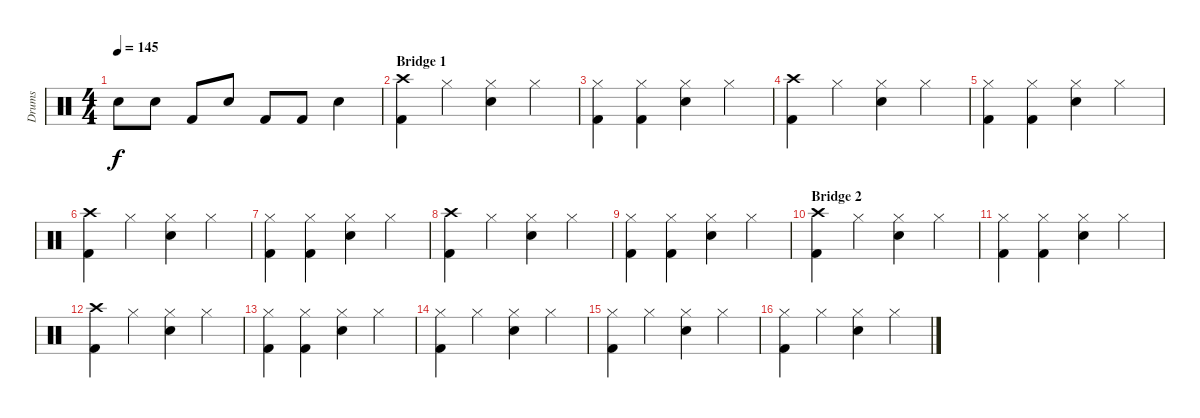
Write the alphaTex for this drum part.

\track ("Drums" "Drums") {instrument percussion}
\staff {score}
\articulation defaults
\ts (4 4)
\tempo 145
\clef neutral
\ks c "Electric Snare (hit)".8{dy f} "Electric Snare (hit)".8 "Kick (hit) 2".8 "Electric Snare (hit)".8 "Kick (hit) 2".8 "Kick (hit) 2".8 "Electric Snare (hit)".4
|
\section ("" "Bridge 1")
("Crash high (hit)" "Kick (hit) 2").4 "Hi-Hat (closed)".4 ("Hi-Hat (closed)" "Electric Snare (hit)").4 "Hi-Hat (closed)".4 |
("Hi-Hat (closed)" "Kick (hit) 2").4 ("Hi-Hat (closed)" "Kick (hit) 2").4 ("Hi-Hat (closed)" "Electric Snare (hit)").4 "Hi-Hat (closed)".4 |
("Crash high (hit)" "Kick (hit) 2").4 "Hi-Hat (closed)".4 ("Hi-Hat (closed)" "Electric Snare (hit)").4 "Hi-Hat (closed)".4 |
("Hi-Hat (closed)" "Kick (hit) 2").4 ("Hi-Hat (closed)" "Kick (hit) 2").4 ("Hi-Hat (closed)" "Electric Snare (hit)").4 "Hi-Hat (closed)".4 |
("Crash high (hit)" "Kick (hit) 2").4 "Hi-Hat (closed)".4 ("Hi-Hat (closed)" "Electric Snare (hit)").4 "Hi-Hat (closed)".4 |
("Hi-Hat (closed)" "Kick (hit) 2").4 ("Hi-Hat (closed)" "Kick (hit) 2").4 ("Hi-Hat (closed)" "Electric Snare (hit)").4 "Hi-Hat (closed)".4 |
("Crash high (hit)" "Kick (hit) 2").4 "Hi-Hat (closed)".4 ("Hi-Hat (closed)" "Electric Snare (hit)").4 "Hi-Hat (closed)".4 |
("Hi-Hat (closed)" "Kick (hit) 2").4 ("Hi-Hat (closed)" "Kick (hit) 2").4 ("Hi-Hat (closed)" "Electric Snare (hit)").4 "Hi-Hat (closed)".4 |
\section ("" "Bridge 2")
("Crash high (hit)" "Kick (hit) 2").4 "Hi-Hat (closed)".4 ("Hi-Hat (closed)" "Electric Snare (hit)").4 "Hi-Hat (closed)".4 |
("Hi-Hat (closed)" "Kick (hit) 2").4 ("Hi-Hat (closed)" "Kick (hit) 2").4 ("Hi-Hat (closed)" "Electric Snare (hit)").4 "Hi-Hat (closed)".4 |
("Crash high (hit)" "Kick (hit) 2").4 "Hi-Hat (closed)".4 ("Hi-Hat (closed)" "Electric Snare (hit)").4 "Hi-Hat (closed)".4 |
("Hi-Hat (closed)" "Kick (hit) 2").4 ("Hi-Hat (closed)" "Kick (hit) 2").4 ("Hi-Hat (closed)" "Electric Snare (hit)").4 "Hi-Hat (closed)".4 |
("Hi-Hat (closed)" "Kick (hit) 2").4 "Hi-Hat (closed)".4 ("Hi-Hat (closed)" "Electric Snare (hit)").4 "Hi-Hat (closed)".4 |
("Hi-Hat (closed)" "Kick (hit) 2").4 "Hi-Hat (closed)".4 ("Hi-Hat (closed)" "Electric Snare (hit)").4 "Hi-Hat (closed)".4 |
("Hi-Hat (closed)" "Kick (hit) 2").4 "Hi-Hat (closed)".4 ("Hi-Hat (closed)" "Electric Snare (hit)").4 "Hi-Hat (closed)".4
